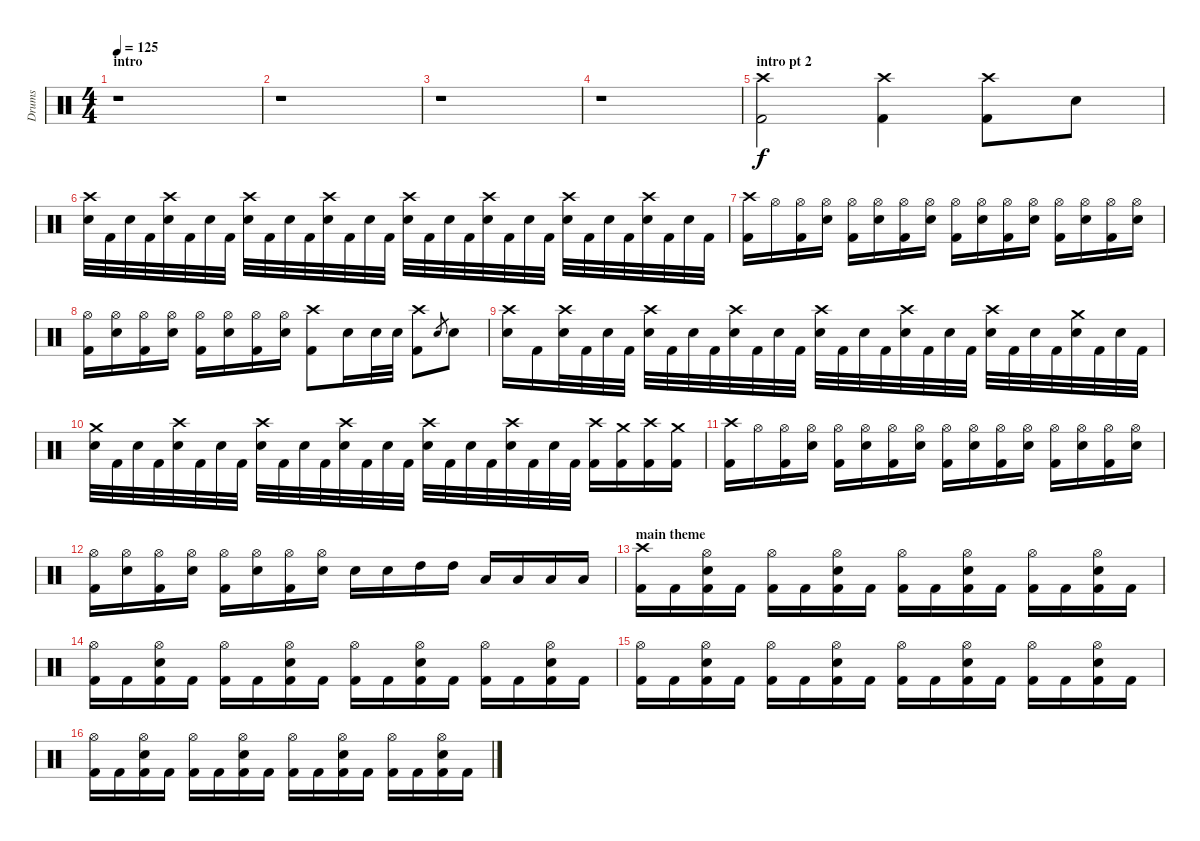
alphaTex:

\track ("Drums" "Drums") {instrument percussion}
\staff {score}
\articulation defaults
\ts (4 4)
\section ("" "intro")
\tempo 125
\clef neutral
\ks c
r.1{dy f} |
r.1 |
r.1 |
r.1 |
\section ("" "intro pt 2")
("Crash high (hit)" "Kick (hit) 2").2 ("Crash high (hit)" "Kick (hit) 2").4 ("Crash high (hit)" "Kick (hit) 2").8 "Electric Snare (hit)".8 |
("Crash high (hit)" "Electric Snare (hit)").32 "Kick (hit) 2".32 "Electric Snare (hit)".32 "Kick (hit) 2".32 ("Crash high (hit)" "Electric Snare (hit)").32 "Kick (hit) 2".32 "Electric Snare (hit)".32 "Kick (hit) 2".32 ("Crash high (hit)" "Electric Snare (hit)").32 "Kick (hit) 2".32 "Electric Snare (hit)".32 "Kick (hit) 2".32 ("Crash high (hit)" "Electric Snare (hit)").32 "Kick (hit) 2".32 "Electric Snare (hit)".32 "Kick (hit) 2".32 ("Crash high (hit)" "Electric Snare (hit)").32 "Kick (hit) 2".32 "Electric Snare (hit)".32 "Kick (hit) 2".32 ("Crash high (hit)" "Electric Snare (hit)").32 "Kick (hit) 2".32 "Electric Snare (hit)".32 "Kick (hit) 2".32 ("Crash high (hit)" "Electric Snare (hit)").32 "Kick (hit) 2".32 "Electric Snare (hit)".32 "Kick (hit) 2".32 ("Crash high (hit)" "Electric Snare (hit)").32 "Kick (hit) 2".32 "Electric Snare (hit)".32 "Kick (hit) 2".32 |
("Crash high (hit)" "Kick (hit) 2").16 "Hi-Hat (open)".16 ("Hi-Hat (open)" "Kick (hit) 2").16 ("Hi-Hat (open)" "Electric Snare (hit)").16 ("Hi-Hat (open)" "Kick (hit) 2").16 ("Hi-Hat (open)" "Electric Snare (hit)").16 ("Hi-Hat (open)" "Kick (hit) 2").16 ("Hi-Hat (open)" "Electric Snare (hit)").16 ("Hi-Hat (open)" "Kick (hit) 2").16 ("Hi-Hat (open)" "Electric Snare (hit)").16 ("Hi-Hat (open)" "Kick (hit) 2").16 ("Hi-Hat (open)" "Electric Snare (hit)").16 ("Hi-Hat (open)" "Kick (hit) 2").16 ("Hi-Hat (open)" "Electric Snare (hit)").16 ("Hi-Hat (open)" "Kick (hit) 2").16 ("Hi-Hat (open)" "Electric Snare (hit)").16 |
("Hi-Hat (open)" "Kick (hit) 2").16 ("Hi-Hat (open)" "Electric Snare (hit)").16 ("Hi-Hat (open)" "Kick (hit) 2").16 ("Hi-Hat (open)" "Electric Snare (hit)").16 ("Hi-Hat (open)" "Kick (hit) 2").16 ("Hi-Hat (open)" "Electric Snare (hit)").16 ("Hi-Hat (open)" "Kick (hit) 2").16 ("Hi-Hat (open)" "Electric Snare (hit)").16 ("Crash high (hit)" "Kick (hit) 2").8 "Electric Snare (hit)".16 "Electric Snare (hit)".32 "Electric Snare (hit)".32 ("Crash high (hit)" "Kick (hit) 2").8 "Electric Snare (hit)".8{gr} "Electric Snare (hit)".8 |
("Crash high (hit)" "Electric Snare (hit)").16 "Kick (hit) 2".16 ("Crash high (hit)" "Electric Snare (hit)").32 "Kick (hit) 2".32 "Electric Snare (hit)".32 "Kick (hit) 2".32 ("Crash high (hit)" "Electric Snare (hit)").32 "Kick (hit) 2".32 "Electric Snare (hit)".32 "Kick (hit) 2".32 ("Crash high (hit)" "Electric Snare (hit)").32 "Kick (hit) 2".32 "Electric Snare (hit)".32 "Kick (hit) 2".32 ("Crash high (hit)" "Electric Snare (hit)").32 "Kick (hit) 2".32 "Electric Snare (hit)".32 "Kick (hit) 2".32 ("Crash high (hit)" "Electric Snare (hit)").32 "Kick (hit) 2".32 "Electric Snare (hit)".32 "Kick (hit) 2".32 ("Crash high (hit)" "Electric Snare (hit)").32 "Kick (hit) 2".32 "Electric Snare (hit)".32 "Kick (hit) 2".32 ("Crash medium (hit)" "Electric Snare (hit)").32 "Kick (hit) 2".32 "Electric Snare (hit)".32 "Kick (hit) 2".32 |
("Crash medium (hit)" "Electric Snare (hit)").32 "Kick (hit) 2".32 "Electric Snare (hit)".32 "Kick (hit) 2".32 ("Crash high (hit)" "Electric Snare (hit)").32 "Kick (hit) 2".32 "Electric Snare (hit)".32 "Kick (hit) 2".32 ("Crash high (hit)" "Electric Snare (hit)").32 "Kick (hit) 2".32 "Electric Snare (hit)".32 "Kick (hit) 2".32 ("Crash high (hit)" "Electric Snare (hit)").32 "Kick (hit) 2".32 "Electric Snare (hit)".32 "Kick (hit) 2".32 ("Crash high (hit)" "Electric Snare (hit)").32 "Kick (hit) 2".32 "Electric Snare (hit)".32 "Kick (hit) 2".32 ("Crash high (hit)" "Electric Snare (hit)").32 "Kick (hit) 2".32 "Electric Snare (hit)".32 "Kick (hit) 2".32 ("Crash high (hit)" "Kick (hit) 2").16 ("Crash medium (hit)" "Kick (hit) 2").16 ("Crash high (hit)" "Kick (hit) 2").16 ("Crash medium (hit)" "Kick (hit) 2").16 |
("Crash high (hit)" "Kick (hit) 2").16 "Hi-Hat (open)".16 ("Hi-Hat (open)" "Kick (hit) 2").16 ("Hi-Hat (open)" "Electric Snare (hit)").16 ("Hi-Hat (open)" "Kick (hit) 2").16 ("Hi-Hat (open)" "Electric Snare (hit)").16 ("Hi-Hat (open)" "Kick (hit) 2").16 ("Hi-Hat (open)" "Electric Snare (hit)").16 ("Hi-Hat (open)" "Kick (hit) 2").16 ("Hi-Hat (open)" "Electric Snare (hit)").16 ("Hi-Hat (open)" "Kick (hit) 2").16 ("Hi-Hat (open)" "Electric Snare (hit)").16 ("Hi-Hat (open)" "Kick (hit) 2").16 ("Hi-Hat (open)" "Electric Snare (hit)").16 ("Hi-Hat (open)" "Kick (hit) 2").16 ("Hi-Hat (open)" "Electric Snare (hit)").16 |
("Hi-Hat (open)" "Kick (hit) 2").16 ("Hi-Hat (open)" "Electric Snare (hit)").16 ("Hi-Hat (open)" "Kick (hit) 2").16 ("Hi-Hat (open)" "Electric Snare (hit)").16 ("Hi-Hat (open)" "Kick (hit) 2").16 ("Hi-Hat (open)" "Electric Snare (hit)").16 ("Hi-Hat (open)" "Kick (hit) 2").16 ("Hi-Hat (open)" "Electric Snare (hit)").16 "Electric Snare (hit)".16 "Electric Snare (hit)".16 "High Tom (hit)".16 "High Tom (hit)".16 "Low Tom (hit)".16 "Low Tom (hit)".16 "Low Floor Tom (hit)".16 "Low Floor Tom (hit)".16 |
\section ("" "main theme")
("Crash high (hit)" "Kick (hit) 2").16 "Kick (hit) 2".16 ("Hi-Hat (open)" "Electric Snare (hit)" "Kick (hit) 2").16 "Kick (hit) 2".16 ("Hi-Hat (open)" "Kick (hit) 2").16 "Kick (hit) 2".16 ("Hi-Hat (open)" "Electric Snare (hit)" "Kick (hit) 2").16 "Kick (hit) 2".16 ("Hi-Hat (open)" "Kick (hit) 2").16 "Kick (hit) 2".16 ("Hi-Hat (open)" "Electric Snare (hit)" "Kick (hit) 2").16 "Kick (hit) 2".16 ("Hi-Hat (open)" "Kick (hit) 2").16 "Kick (hit) 2".16 ("Hi-Hat (open)" "Electric Snare (hit)" "Kick (hit) 2").16 "Kick (hit) 2".16 |
("Hi-Hat (open)" "Kick (hit) 2").16 "Kick (hit) 2".16 ("Hi-Hat (open)" "Electric Snare (hit)" "Kick (hit) 2").16 "Kick (hit) 2".16 ("Hi-Hat (open)" "Kick (hit) 2").16 "Kick (hit) 2".16 ("Hi-Hat (open)" "Electric Snare (hit)" "Kick (hit) 2").16 "Kick (hit) 2".16 ("Hi-Hat (open)" "Kick (hit) 2").16 "Kick (hit) 2".16 ("Hi-Hat (open)" "Electric Snare (hit)" "Kick (hit) 2").16 "Kick (hit) 2".16 ("Hi-Hat (open)" "Kick (hit) 2").16 "Kick (hit) 2".16 ("Hi-Hat (open)" "Electric Snare (hit)" "Kick (hit) 2").16 "Kick (hit) 2".16 |
("Hi-Hat (open)" "Kick (hit) 2").16 "Kick (hit) 2".16 ("Hi-Hat (open)" "Electric Snare (hit)" "Kick (hit) 2").16 "Kick (hit) 2".16 ("Hi-Hat (open)" "Kick (hit) 2").16 "Kick (hit) 2".16 ("Hi-Hat (open)" "Electric Snare (hit)" "Kick (hit) 2").16 "Kick (hit) 2".16 ("Hi-Hat (open)" "Kick (hit) 2").16 "Kick (hit) 2".16 ("Hi-Hat (open)" "Electric Snare (hit)" "Kick (hit) 2").16 "Kick (hit) 2".16 ("Hi-Hat (open)" "Kick (hit) 2").16 "Kick (hit) 2".16 ("Hi-Hat (open)" "Electric Snare (hit)" "Kick (hit) 2").16 "Kick (hit) 2".16 |
("Hi-Hat (open)" "Kick (hit) 2").16 "Kick (hit) 2".16 ("Hi-Hat (open)" "Electric Snare (hit)" "Kick (hit) 2").16 "Kick (hit) 2".16 ("Hi-Hat (open)" "Kick (hit) 2").16 "Kick (hit) 2".16 ("Hi-Hat (open)" "Electric Snare (hit)" "Kick (hit) 2").16 "Kick (hit) 2".16 ("Hi-Hat (open)" "Kick (hit) 2").16 "Kick (hit) 2".16 ("Hi-Hat (open)" "Electric Snare (hit)" "Kick (hit) 2").16 "Kick (hit) 2".16 ("Hi-Hat (open)" "Kick (hit) 2").16 "Kick (hit) 2".16 ("Hi-Hat (open)" "Electric Snare (hit)" "Kick (hit) 2").16 "Kick (hit) 2".16
